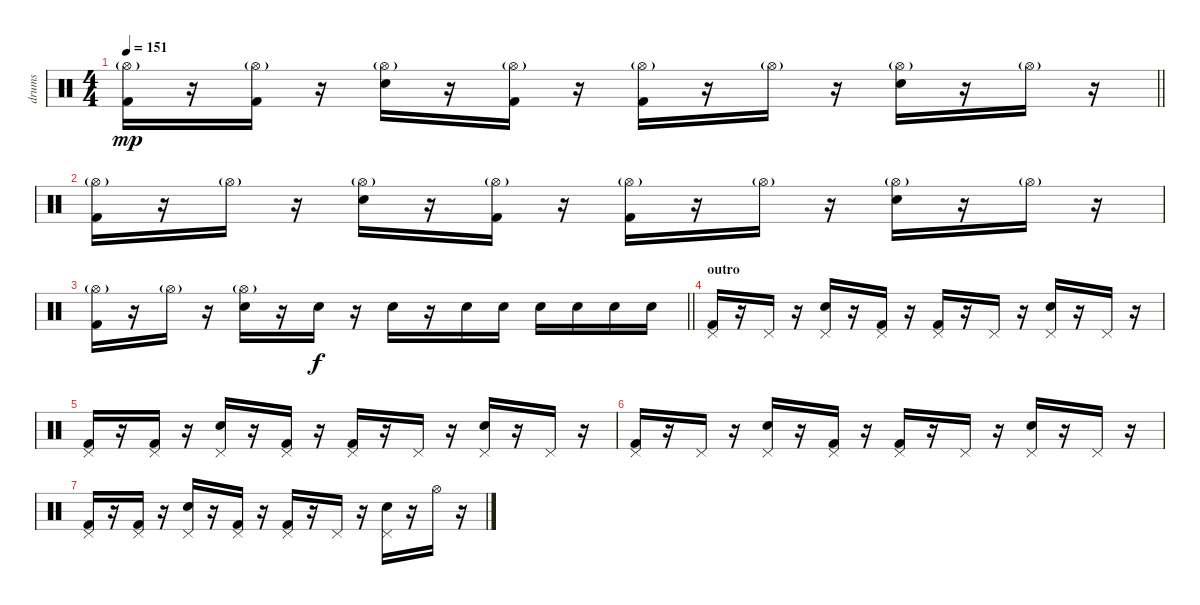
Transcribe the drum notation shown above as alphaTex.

\track ("drums" "drums") {instrument percussion}
\staff {score}
\articulation defaults
\ts (4 4)
\tempo 151
\clef neutral
\barLineRight lightlight
\ks c
("Kick (hit) 2" "Hi-Hat (open)"{g}).16{dy mp} r.16 ("Kick (hit) 2" "Hi-Hat (open)"{g}).16 r.16 ("Electric Snare (hit)" "Hi-Hat (open)"{g}).16 r.16 ("Kick (hit) 2" "Hi-Hat (open)"{g}).16 r.16 ("Kick (hit) 2" "Hi-Hat (open)"{g}).16 r.16 "Hi-Hat (open)"{g}.16 r.16 ("Electric Snare (hit)" "Hi-Hat (open)"{g}).16 r.16 "Hi-Hat (open)"{g}.16 r.16 |
("Kick (hit) 2" "Hi-Hat (open)"{g}).16 r.16 "Hi-Hat (open)"{g}.16 r.16 ("Electric Snare (hit)" "Hi-Hat (open)"{g}).16 r.16 ("Kick (hit) 2" "Hi-Hat (open)"{g}).16 r.16 ("Kick (hit) 2" "Hi-Hat (open)"{g}).16 r.16 "Hi-Hat (open)"{g}.16 r.16 ("Electric Snare (hit)" "Hi-Hat (open)"{g}).16 r.16 "Hi-Hat (open)"{g}.16 r.16 |
\barLineRight lightlight
("Kick (hit) 2" "Hi-Hat (open)"{g}).16 r.16 "Hi-Hat (open)"{g}.16 r.16 ("Electric Snare (hit)" "Hi-Hat (open)"{g}).16 r.16 "Electric Snare (hit)".16{dy f} r.16 "Electric Snare (hit)".16 r.16 "Electric Snare (hit)".16 "Electric Snare (hit)".16 "Electric Snare (hit)".16 "Electric Snare (hit)".16 "Electric Snare (hit)".16 "Electric Snare (hit)".16 |
\section ("" "outro")
("Kick (hit) 2" "Pedal Hi-Hat (hit)").16 r.16 "Pedal Hi-Hat (hit)".16 r.16 ("Electric Snare (hit)" "Pedal Hi-Hat (hit)").16 r.16 ("Kick (hit) 2" "Pedal Hi-Hat (hit)").16 r.16 ("Kick (hit) 2" "Pedal Hi-Hat (hit)").16 r.16 "Pedal Hi-Hat (hit)".16 r.16 ("Electric Snare (hit)" "Pedal Hi-Hat (hit)").16 r.16 "Pedal Hi-Hat (hit)".16 r.16 |
("Kick (hit) 2" "Pedal Hi-Hat (hit)").16 r.16 ("Kick (hit) 2" "Pedal Hi-Hat (hit)").16 r.16 ("Electric Snare (hit)" "Pedal Hi-Hat (hit)").16 r.16 ("Kick (hit) 2" "Pedal Hi-Hat (hit)").16 r.16 ("Kick (hit) 2" "Pedal Hi-Hat (hit)").16 r.16 "Pedal Hi-Hat (hit)".16 r.16 ("Electric Snare (hit)" "Pedal Hi-Hat (hit)").16 r.16 "Pedal Hi-Hat (hit)".16 r.16 |
("Kick (hit) 2" "Pedal Hi-Hat (hit)").16 r.16 "Pedal Hi-Hat (hit)".16 r.16 ("Electric Snare (hit)" "Pedal Hi-Hat (hit)").16 r.16 ("Kick (hit) 2" "Pedal Hi-Hat (hit)").16 r.16 ("Kick (hit) 2" "Pedal Hi-Hat (hit)").16 r.16 "Pedal Hi-Hat (hit)".16 r.16 ("Electric Snare (hit)" "Pedal Hi-Hat (hit)").16 r.16 "Pedal Hi-Hat (hit)".16 r.16 |
("Kick (hit) 2" "Pedal Hi-Hat (hit)").16 r.16 ("Kick (hit) 2" "Pedal Hi-Hat (hit)").16 r.16 ("Electric Snare (hit)" "Pedal Hi-Hat (hit)").16 r.16 ("Kick (hit) 2" "Pedal Hi-Hat (hit)").16 r.16 ("Kick (hit) 2" "Pedal Hi-Hat (hit)").16 r.16 "Pedal Hi-Hat (hit)".16 r.16 ("Electric Snare (hit)" "Pedal Hi-Hat (hit)").16 r.16 "Hi-Hat (open)".16 r.16
